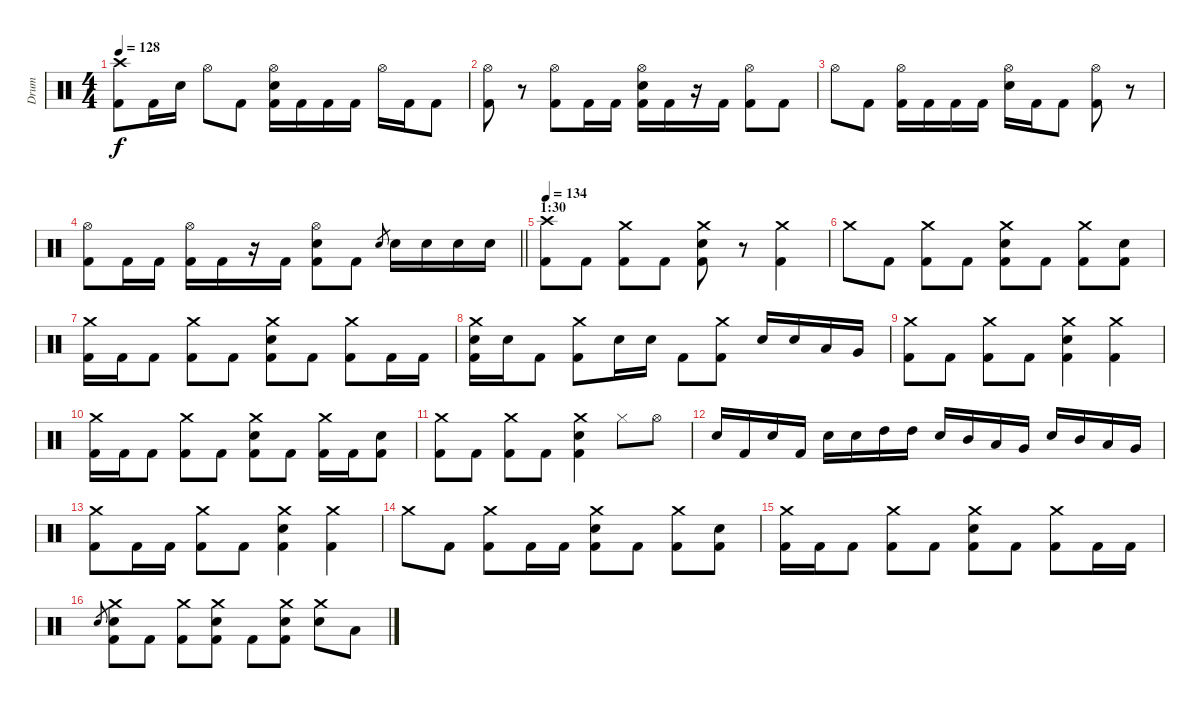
\track ("Drum" "Drum") {instrument percussion}
\staff {score}
\articulation defaults
\ts (4 4)
\tempo 128
\clef neutral
\ks c
("Crash high (hit)" "Kick (hit) 2").8{dy f} "Kick (hit) 2".16 "Electric Snare (hit)".16 "Hi-Hat (open)".8 "Kick (hit) 2".8 ("Hi-Hat (open)" "Electric Snare (hit)" "Kick (hit) 2").16 "Kick (hit) 2".16 "Kick (hit) 2".16 "Kick (hit) 2".16 "Hi-Hat (open)".16 "Kick (hit) 2".16 "Kick (hit) 2".8 |
("Hi-Hat (open)" "Kick (hit) 2").8 r.8 ("Hi-Hat (open)" "Kick (hit) 2").8 "Kick (hit) 2".16 "Kick (hit) 2".16 ("Hi-Hat (open)" "Electric Snare (hit)" "Kick (hit) 2").16 "Kick (hit) 2".16 r.16 "Kick (hit) 2".16 ("Hi-Hat (open)" "Kick (hit) 2").8 "Kick (hit) 2".8 |
"Hi-Hat (open)".8 "Kick (hit) 2".8 ("Hi-Hat (open)" "Kick (hit) 2").16 "Kick (hit) 2".16 "Kick (hit) 2".16 "Kick (hit) 2".16 ("Hi-Hat (open)" "Electric Snare (hit)").16 "Kick (hit) 2".16 "Kick (hit) 2".8 ("Hi-Hat (open)" "Kick (hit) 2").8 r.8 |
\barLineRight lightlight
("Hi-Hat (open)" "Kick (hit) 2").8 "Kick (hit) 2".16 "Kick (hit) 2".16 ("Hi-Hat (open)" "Kick (hit) 2").16 "Kick (hit) 2".16 r.16 "Kick (hit) 2".16 ("Hi-Hat (open)" "Electric Snare (hit)" "Kick (hit) 2").8 "Kick (hit) 2".8 "Electric Snare (hit)".8{gr} "Electric Snare (hit)".16 "Electric Snare (hit)".16 "Electric Snare (hit)".16 "Electric Snare (hit)".16 |
\section ("" "1:30")
\tempo 134
("Crash high (hit)" "Kick (hit) 2").8 "Kick (hit) 2".8 ("Crash medium (hit)" "Kick (hit) 2").8 "Kick (hit) 2".8 ("Crash medium (hit)" "Electric Snare (hit)" "Kick (hit) 2").8 r.8 ("Crash medium (hit)" "Kick (hit) 2").4 |
"Crash medium (hit)".8 "Kick (hit) 2".8 ("Crash medium (hit)" "Kick (hit) 2").8 "Kick (hit) 2".8 ("Crash medium (hit)" "Electric Snare (hit)" "Kick (hit) 2").8 "Kick (hit) 2".8 ("Crash medium (hit)" "Kick (hit) 2").8 ("Electric Snare (hit)" "Kick (hit) 2").8 |
("Crash medium (hit)" "Kick (hit) 2").16 "Kick (hit) 2".16 "Kick (hit) 2".8 ("Crash medium (hit)" "Kick (hit) 2").8 "Kick (hit) 2".8 ("Crash medium (hit)" "Electric Snare (hit)" "Kick (hit) 2").8 "Kick (hit) 2".8 ("Crash medium (hit)" "Kick (hit) 2").8 "Kick (hit) 2".16 "Kick (hit) 2".16 |
("Crash medium (hit)" "Electric Snare (hit)" "Kick (hit) 2").16 "Electric Snare (hit)".16 "Kick (hit) 2".8 ("Crash medium (hit)" "Kick (hit) 2").8 "Electric Snare (hit)".16 "Electric Snare (hit)".16 "Kick (hit) 2".8 ("Crash medium (hit)" "Kick (hit) 2").8 "Electric Snare (hit)".16 "Electric Snare (hit)".16 "Low Tom (hit)".16 "Very Low Tom (hit)".16 |
("Crash medium (hit)" "Kick (hit) 2").8 "Kick (hit) 2".8 ("Crash medium (hit)" "Kick (hit) 2").8 "Kick (hit) 2".8 ("Crash medium (hit)" "Electric Snare (hit)" "Kick (hit) 2").4 ("Crash medium (hit)" "Kick (hit) 2").4 |
("Crash medium (hit)" "Kick (hit) 2").16 "Kick (hit) 2".16 "Kick (hit) 2".8 ("Crash medium (hit)" "Kick (hit) 2").8 "Kick (hit) 2".8 ("Crash medium (hit)" "Electric Snare (hit)" "Kick (hit) 2").8 "Kick (hit) 2".8 ("Crash medium (hit)" "Kick (hit) 2").16 "Kick (hit) 2".16 ("Electric Snare (hit)" "Kick (hit) 2").8 |
("Crash medium (hit)" "Kick (hit) 2").8 "Kick (hit) 2".8 ("Crash medium (hit)" "Kick (hit) 2").8 "Kick (hit) 2".8 ("Crash medium (hit)" "Electric Snare (hit)" "Kick (hit) 2").4 "Hi-Hat (closed)".8 "Hi-Hat (open)".8 |
"Electric Snare (hit)".16 "Kick (hit) 2".16 "Electric Snare (hit)".16 "Kick (hit) 2".16 "Electric Snare (hit)".16 "Electric Snare (hit)".16 "High Tom (hit)".16 "High Tom (hit)".16 "Electric Snare (hit)".16 "Mid Tom (hit)".16 "Low Tom (hit)".16 "Very Low Tom (hit)".16 "Electric Snare (hit)".16 "Mid Tom (hit)".16 "Low Tom (hit)".16 "Very Low Tom (hit)".16 |
("Crash medium (hit)" "Kick (hit) 2").8 "Kick (hit) 2".16 "Kick (hit) 2".16 ("Crash medium (hit)" "Kick (hit) 2").8 "Kick (hit) 2".8 ("Crash medium (hit)" "Electric Snare (hit)" "Kick (hit) 2").4 ("Crash medium (hit)" "Kick (hit) 2").4 |
"Crash medium (hit)".8 "Kick (hit) 2".8 ("Crash medium (hit)" "Kick (hit) 2").8 "Kick (hit) 2".16 "Kick (hit) 2".16 ("Crash medium (hit)" "Electric Snare (hit)" "Kick (hit) 2").8 "Kick (hit) 2".8 ("Crash medium (hit)" "Kick (hit) 2").8 ("Electric Snare (hit)" "Kick (hit) 2").8 |
("Crash medium (hit)" "Kick (hit) 2").16 "Kick (hit) 2".16 "Kick (hit) 2".8 ("Crash medium (hit)" "Kick (hit) 2").8 "Kick (hit) 2".8 ("Crash medium (hit)" "Electric Snare (hit)" "Kick (hit) 2").8 "Kick (hit) 2".8 ("Crash medium (hit)" "Kick (hit) 2").8 "Kick (hit) 2".16 "Kick (hit) 2".16 |
"Electric Snare (hit)".8{gr} ("Crash medium (hit)" "Electric Snare (hit)" "Kick (hit) 2").8 "Kick (hit) 2".8 ("Crash medium (hit)" "Kick (hit) 2").8 ("Crash medium (hit)" "Electric Snare (hit)" "Kick (hit) 2").8 "Kick (hit) 2".8 ("Crash medium (hit)" "Electric Snare (hit)" "Kick (hit) 2").8 ("Crash medium (hit)" "Electric Snare (hit)").8 "Low Tom (hit)".8
